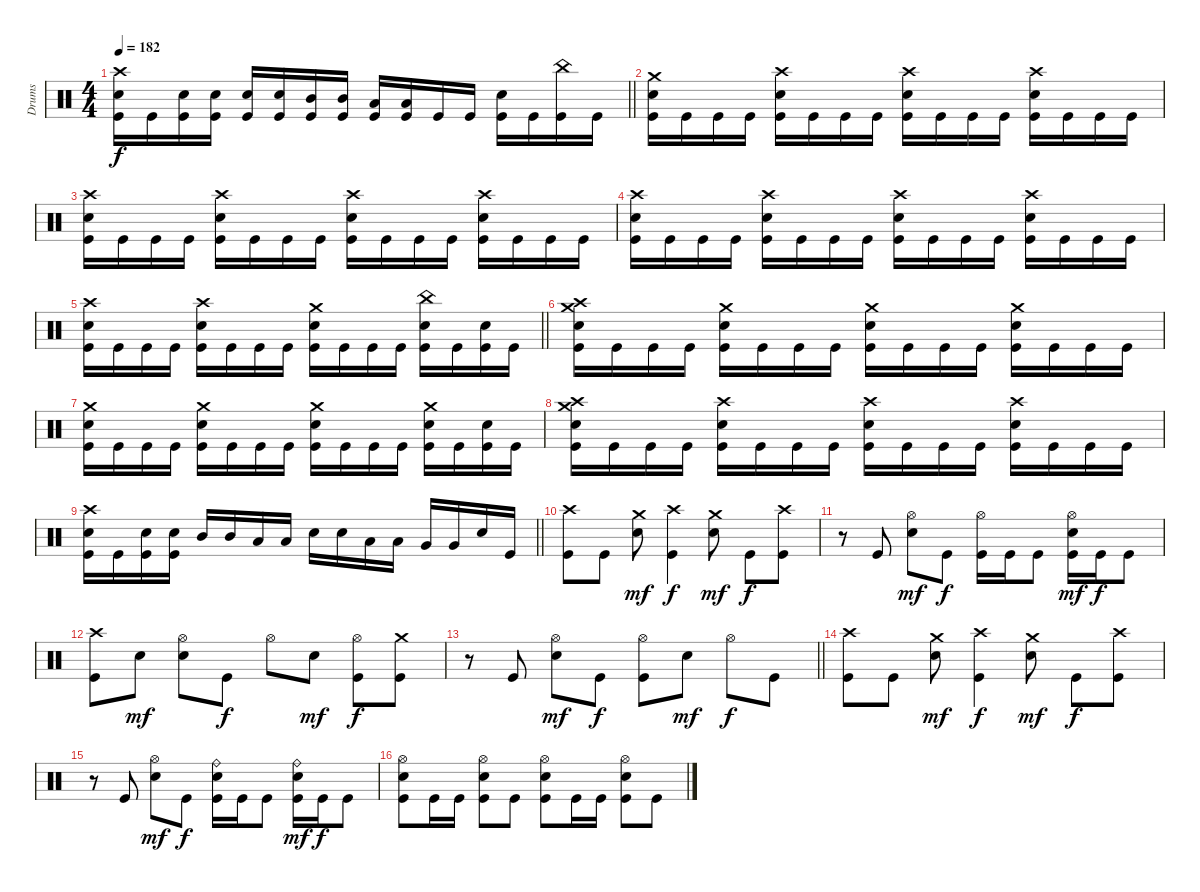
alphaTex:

\track ("Drums" "Drums") {instrument percussion}
\staff
\articulation defaults
\ts (4 4)
\tempo 182
\clef neutral
\barLineRight lightlight
\ks c
("Crash high (hit)" "Electric Snare (hit)" "Kick (hit)").16{dy f} "Kick (hit)".16 ("Electric Snare (hit)" "Kick (hit)").16 ("Electric Snare (hit)" "Kick (hit)").16 ("Electric Snare (hit)" "Kick (hit)").16 ("Electric Snare (hit)" "Kick (hit)").16 ("Mid Tom (hit)" "Kick (hit)").16 ("Mid Tom (hit)" "Kick (hit)").16 ("Low Tom (hit)" "Kick (hit)").16 ("Low Tom (hit)" "Kick (hit)").16 "Kick (hit)".16 "Kick (hit)".16 ("Electric Snare (hit)" "Kick (hit)").16 "Kick (hit)".16 ("China (hit)" "Kick (hit)").16 "Kick (hit)".16 |
("Crash medium (hit)" "Electric Snare (hit)" "Kick (hit)").16 "Kick (hit)".16 "Kick (hit)".16 "Kick (hit)".16 ("Crash high (hit)" "Electric Snare (hit)" "Kick (hit)").16 "Kick (hit)".16 "Kick (hit)".16 "Kick (hit)".16 ("Crash high (hit)" "Electric Snare (hit)" "Kick (hit)").16 "Kick (hit)".16 "Kick (hit)".16 "Kick (hit)".16 ("Crash high (hit)" "Electric Snare (hit)" "Kick (hit)").16 "Kick (hit)".16 "Kick (hit)".16 "Kick (hit)".16 |
("Crash high (hit)" "Electric Snare (hit)" "Kick (hit)").16 "Kick (hit)".16 "Kick (hit)".16 "Kick (hit)".16 ("Crash high (hit)" "Electric Snare (hit)" "Kick (hit)").16 "Kick (hit)".16 "Kick (hit)".16 "Kick (hit)".16 ("Crash high (hit)" "Electric Snare (hit)" "Kick (hit)").16 "Kick (hit)".16 "Kick (hit)".16 "Kick (hit)".16 ("Crash high (hit)" "Electric Snare (hit)" "Kick (hit)").16 "Kick (hit)".16 "Kick (hit)".16 "Kick (hit)".16 |
("Crash high (hit)" "Electric Snare (hit)" "Kick (hit)").16 "Kick (hit)".16 "Kick (hit)".16 "Kick (hit)".16 ("Crash high (hit)" "Electric Snare (hit)" "Kick (hit)").16 "Kick (hit)".16 "Kick (hit)".16 "Kick (hit)".16 ("Crash high (hit)" "Electric Snare (hit)" "Kick (hit)").16 "Kick (hit)".16 "Kick (hit)".16 "Kick (hit)".16 ("Crash high (hit)" "Electric Snare (hit)" "Kick (hit)").16 "Kick (hit)".16 "Kick (hit)".16 "Kick (hit)".16 |
\barLineRight lightlight
("Crash high (hit)" "Electric Snare (hit)" "Kick (hit)").16 "Kick (hit)".16 "Kick (hit)".16 "Kick (hit)".16 ("Crash high (hit)" "Electric Snare (hit)" "Kick (hit)").16 "Kick (hit)".16 "Kick (hit)".16 "Kick (hit)".16 ("Crash medium (hit)" "Electric Snare (hit)" "Kick (hit)").16 "Kick (hit)".16 "Kick (hit)".16 "Kick (hit)".16 ("China (hit)" "Electric Snare (hit)" "Kick (hit)").16 "Kick (hit)".16 ("Electric Snare (hit)" "Kick (hit)").16 "Kick (hit)".16 |
("Crash medium (hit)" "Crash high (hit)" "Electric Snare (hit)" "Kick (hit)").16 "Kick (hit)".16 "Kick (hit)".16 "Kick (hit)".16 ("Crash medium (hit)" "Electric Snare (hit)" "Kick (hit)").16 "Kick (hit)".16 "Kick (hit)".16 "Kick (hit)".16 ("Crash medium (hit)" "Electric Snare (hit)" "Kick (hit)").16 "Kick (hit)".16 "Kick (hit)".16 "Kick (hit)".16 ("Crash medium (hit)" "Electric Snare (hit)" "Kick (hit)").16 "Kick (hit)".16 "Kick (hit)".16 "Kick (hit)".16 |
("Crash medium (hit)" "Electric Snare (hit)" "Kick (hit)").16 "Kick (hit)".16 "Kick (hit)".16 "Kick (hit)".16 ("Crash medium (hit)" "Electric Snare (hit)" "Kick (hit)").16 "Kick (hit)".16 "Kick (hit)".16 "Kick (hit)".16 ("Crash medium (hit)" "Electric Snare (hit)" "Kick (hit)").16 "Kick (hit)".16 "Kick (hit)".16 "Kick (hit)".16 ("Crash medium (hit)" "Electric Snare (hit)" "Kick (hit)").16 "Kick (hit)".16 ("Electric Snare (hit)" "Kick (hit)").16 "Kick (hit)".16 |
("Crash medium (hit)" "Crash high (hit)" "Electric Snare (hit)" "Kick (hit)").16 "Kick (hit)".16 "Kick (hit)".16 "Kick (hit)".16 ("Crash high (hit)" "Electric Snare (hit)" "Kick (hit)").16 "Kick (hit)".16 "Kick (hit)".16 "Kick (hit)".16 ("Crash high (hit)" "Electric Snare (hit)" "Kick (hit)").16 "Kick (hit)".16 "Kick (hit)".16 "Kick (hit)".16 ("Crash high (hit)" "Electric Snare (hit)" "Kick (hit)").16 "Kick (hit)".16 "Kick (hit)".16 "Kick (hit)".16 |
\barLineRight lightlight
("Crash high (hit)" "Electric Snare (hit)" "Kick (hit)").16 "Kick (hit)".16 ("Electric Snare (hit)" "Kick (hit)").16 ("Electric Snare (hit)" "Kick (hit)").16 "Mid Tom (hit)".16 "Mid Tom (hit)".16 "Low Tom (hit)".16 "Low Tom (hit)".16 "Electric Snare (hit)".16 "Electric Snare (hit)".16 "Low Tom (hit)".16 "Low Tom (hit)".16 "Very Low Tom (hit)".16 "Very Low Tom (hit)".16 "Electric Snare (hit)".16 "Kick (hit)".16 |
\section ("" "")
("Crash high (hit)" "Kick (hit)").8 "Kick (hit)".8 ("Crash medium (hit)" "Electric Snare (hit)").8{dy mf} ("Crash high (hit)" "Kick (hit)").4{dy f} ("Crash medium (hit)" "Electric Snare (hit)").8{dy mf} "Kick (hit)".8{dy f} ("Crash high (hit)" "Kick (hit)").8 |
r.8 "Kick (hit)".8 ("Hi-Hat (open)" "Electric Snare (hit)").8{dy mf} "Kick (hit)".8{dy f} ("Hi-Hat (open)" "Kick (hit)").16 "Kick (hit)".16 "Kick (hit)".8 ("Hi-Hat (open)" "Electric Snare (hit)" "Kick (hit)").16{dy mf} "Kick (hit)".16{dy f} "Kick (hit)".8 |
("Crash high (hit)" "Kick (hit)").8 "Electric Snare (hit)".8{dy mf} ("Hi-Hat (open)" "Electric Snare (hit)").8 "Kick (hit)".8{dy f} "Hi-Hat (open)".8 "Electric Snare (hit)".8{dy mf} ("Hi-Hat (open)" "Kick (hit)").8{dy f} ("Crash medium (hit)" "Kick (hit)").8 |
\barLineRight lightlight
r.8 "Kick (hit)".8 ("Hi-Hat (open)" "Electric Snare (hit)").8{dy mf} "Kick (hit)".8{dy f} ("Hi-Hat (open)" "Kick (hit)").8 "Electric Snare (hit)".8{dy mf} "Hi-Hat (open)".8{dy f} "Kick (hit)".8 |
("Crash high (hit)" "Kick (hit)").8 "Kick (hit)".8 ("Crash medium (hit)" "Electric Snare (hit)").8{dy mf} ("Crash high (hit)" "Kick (hit)").4{dy f} ("Crash medium (hit)" "Electric Snare (hit)").8{dy mf} "Kick (hit)".8{dy f} ("Crash high (hit)" "Kick (hit)").8 |
r.8 "Kick (hit)".8 ("Hi-Hat (open)" "Electric Snare (hit)").8{dy mf} "Kick (hit)".8{dy f} ("Ride (bell)" "Electric Snare (hit)" "Kick (hit)").16 "Kick (hit)".16 "Kick (hit)".8 ("Ride (bell)" "Electric Snare (hit)" "Kick (hit)").16{dy mf} "Kick (hit)".16{dy f} "Kick (hit)".8 |
("Hi-Hat (open)" "Electric Snare (hit)" "Kick (hit)").8 "Kick (hit)".16 "Kick (hit)".16 ("Hi-Hat (open)" "Electric Snare (hit)" "Kick (hit)").8 "Kick (hit)".8 ("Hi-Hat (open)" "Electric Snare (hit)" "Kick (hit)").8 "Kick (hit)".16 "Kick (hit)".16 ("Hi-Hat (open)" "Electric Snare (hit)" "Kick (hit)").8 "Kick (hit)".8
